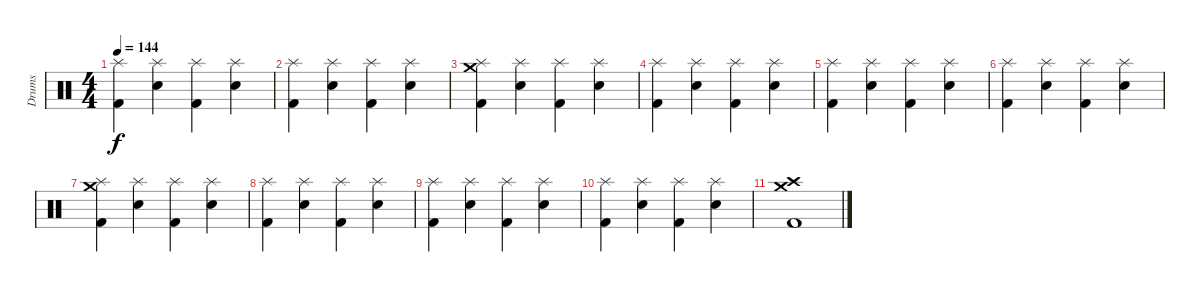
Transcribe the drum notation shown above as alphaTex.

\track ("Drums" "Drums") {instrument percussion}
\staff {score}
\articulation defaults
\ts (4 4)
\tempo 144
\clef neutral
\ks c
("Splash (hit)" "Kick (hit) 2").4{dy f} ("Splash (hit)" "Snare (hit) 2").4 ("Splash (hit)" "Kick (hit) 2").4 ("Splash (hit)" "Snare (hit) 2").4 |
("Splash (hit)" "Kick (hit) 2").4 ("Splash (hit)" "Snare (hit) 2").4 ("Splash (hit)" "Kick (hit) 2").4 ("Splash (hit)" "Snare (hit) 2").4 |
("Splash (hit)" "Crash medium (hit)" "Kick (hit) 2").4 ("Splash (hit)" "Snare (hit) 2").4 ("Splash (hit)" "Kick (hit) 2").4 ("Splash (hit)" "Snare (hit) 2").4 |
("Splash (hit)" "Kick (hit) 2").4 ("Splash (hit)" "Snare (hit) 2").4 ("Splash (hit)" "Kick (hit) 2").4 ("Splash (hit)" "Snare (hit) 2").4 |
("Splash (hit)" "Kick (hit) 2").4 ("Splash (hit)" "Snare (hit) 2").4 ("Splash (hit)" "Kick (hit) 2").4 ("Splash (hit)" "Snare (hit) 2").4 |
("Splash (hit)" "Kick (hit) 2").4 ("Splash (hit)" "Snare (hit) 2").4 ("Splash (hit)" "Kick (hit) 2").4 ("Splash (hit)" "Snare (hit) 2").4 |
("Splash (hit)" "Crash medium (hit)" "Kick (hit) 2").4 ("Splash (hit)" "Snare (hit) 2").4 ("Splash (hit)" "Kick (hit) 2").4 ("Splash (hit)" "Snare (hit) 2").4 |
("Splash (hit)" "Kick (hit) 2").4 ("Splash (hit)" "Snare (hit) 2").4 ("Splash (hit)" "Kick (hit) 2").4 ("Splash (hit)" "Snare (hit) 2").4 |
("Splash (hit)" "Kick (hit) 2").4 ("Splash (hit)" "Snare (hit) 2").4 ("Splash (hit)" "Kick (hit) 2").4 ("Splash (hit)" "Snare (hit) 2").4 |
("Splash (hit)" "Kick (hit) 2").4 ("Splash (hit)" "Snare (hit) 2").4 ("Splash (hit)" "Kick (hit) 2").4 ("Splash (hit)" "Snare (hit) 2").4 |
("Crash high (hit)" "Crash medium (hit)" "Kick (hit) 2").1
